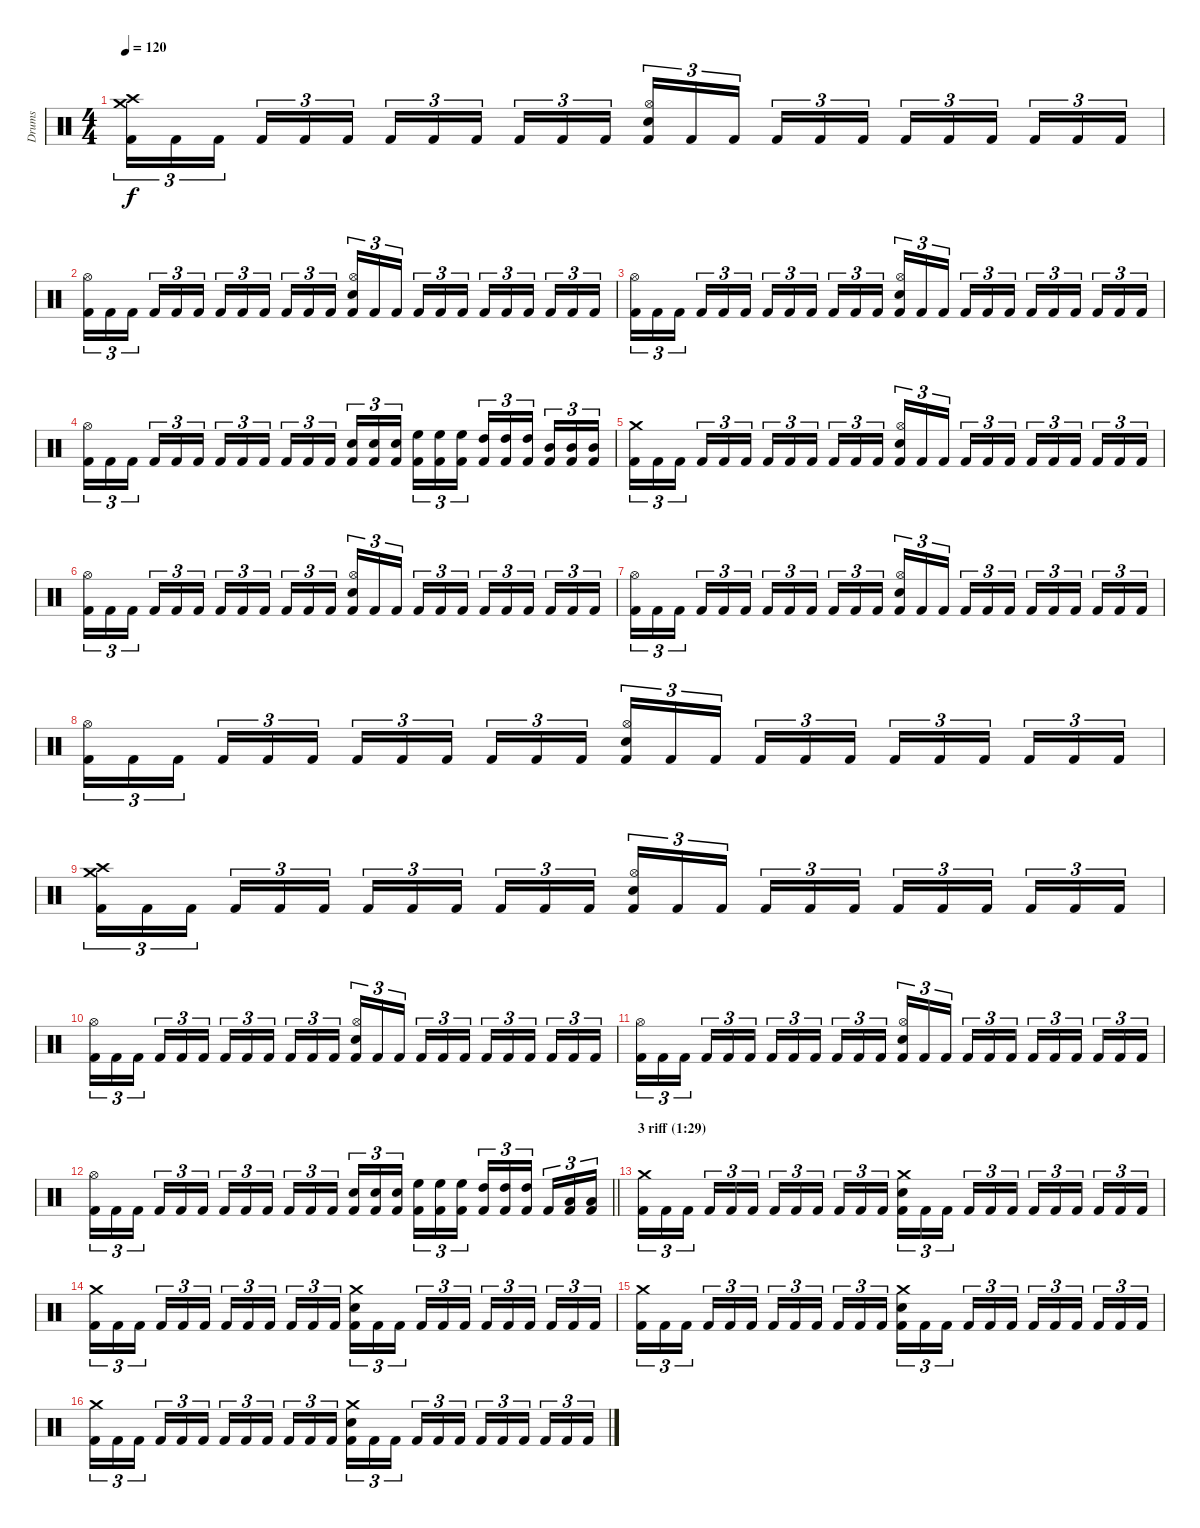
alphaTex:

\track ("Drums" "Drums") {instrument percussion}
\staff {score}
\articulation defaults
\ts (4 4)
\tempo 120
\clef neutral
\ks c
("Crash high (hit)" "Crash medium (hit)" "Kick (hit) 2").16{tu (3 2) dy f} "Kick (hit) 2".16{tu (3 2)} "Kick (hit) 2".16{tu (3 2) beam splitsecondary} "Kick (hit) 2".16{tu (3 2)} "Kick (hit) 2".16{tu (3 2)} "Kick (hit) 2".16{tu (3 2)} "Kick (hit) 2".16{tu (3 2)} "Kick (hit) 2".16{tu (3 2)} "Kick (hit) 2".16{tu (3 2) beam splitsecondary} "Kick (hit) 2".16{tu (3 2)} "Kick (hit) 2".16{tu (3 2)} "Kick (hit) 2".16{tu (3 2)} ("Hi-Hat (open)" "Snare (hit) 2" "Kick (hit) 2").16{tu (3 2)} "Kick (hit) 2".16{tu (3 2)} "Kick (hit) 2".16{tu (3 2) beam splitsecondary} "Kick (hit) 2".16{tu (3 2)} "Kick (hit) 2".16{tu (3 2)} "Kick (hit) 2".16{tu (3 2)} "Kick (hit) 2".16{tu (3 2)} "Kick (hit) 2".16{tu (3 2)} "Kick (hit) 2".16{tu (3 2) beam splitsecondary} "Kick (hit) 2".16{tu (3 2)} "Kick (hit) 2".16{tu (3 2)} "Kick (hit) 2".16{tu (3 2)} |
("Hi-Hat (open)" "Kick (hit) 2").16{tu (3 2)} "Kick (hit) 2".16{tu (3 2)} "Kick (hit) 2".16{tu (3 2) beam splitsecondary} "Kick (hit) 2".16{tu (3 2)} "Kick (hit) 2".16{tu (3 2)} "Kick (hit) 2".16{tu (3 2)} "Kick (hit) 2".16{tu (3 2)} "Kick (hit) 2".16{tu (3 2)} "Kick (hit) 2".16{tu (3 2) beam splitsecondary} "Kick (hit) 2".16{tu (3 2)} "Kick (hit) 2".16{tu (3 2)} "Kick (hit) 2".16{tu (3 2)} ("Hi-Hat (open)" "Snare (hit) 2" "Kick (hit) 2").16{tu (3 2)} "Kick (hit) 2".16{tu (3 2)} "Kick (hit) 2".16{tu (3 2) beam splitsecondary} "Kick (hit) 2".16{tu (3 2)} "Kick (hit) 2".16{tu (3 2)} "Kick (hit) 2".16{tu (3 2)} "Kick (hit) 2".16{tu (3 2)} "Kick (hit) 2".16{tu (3 2)} "Kick (hit) 2".16{tu (3 2) beam splitsecondary} "Kick (hit) 2".16{tu (3 2)} "Kick (hit) 2".16{tu (3 2)} "Kick (hit) 2".16{tu (3 2)} |
("Hi-Hat (open)" "Kick (hit) 2").16{tu (3 2)} "Kick (hit) 2".16{tu (3 2)} "Kick (hit) 2".16{tu (3 2) beam splitsecondary} "Kick (hit) 2".16{tu (3 2)} "Kick (hit) 2".16{tu (3 2)} "Kick (hit) 2".16{tu (3 2)} "Kick (hit) 2".16{tu (3 2)} "Kick (hit) 2".16{tu (3 2)} "Kick (hit) 2".16{tu (3 2) beam splitsecondary} "Kick (hit) 2".16{tu (3 2)} "Kick (hit) 2".16{tu (3 2)} "Kick (hit) 2".16{tu (3 2)} ("Hi-Hat (open)" "Snare (hit) 2" "Kick (hit) 2").16{tu (3 2)} "Kick (hit) 2".16{tu (3 2)} "Kick (hit) 2".16{tu (3 2) beam splitsecondary} "Kick (hit) 2".16{tu (3 2)} "Kick (hit) 2".16{tu (3 2)} "Kick (hit) 2".16{tu (3 2)} "Kick (hit) 2".16{tu (3 2)} "Kick (hit) 2".16{tu (3 2)} "Kick (hit) 2".16{tu (3 2) beam splitsecondary} "Kick (hit) 2".16{tu (3 2)} "Kick (hit) 2".16{tu (3 2)} "Kick (hit) 2".16{tu (3 2)} |
("Hi-Hat (open)" "Kick (hit) 2").16{tu (3 2)} "Kick (hit) 2".16{tu (3 2)} "Kick (hit) 2".16{tu (3 2) beam splitsecondary} "Kick (hit) 2".16{tu (3 2)} "Kick (hit) 2".16{tu (3 2)} "Kick (hit) 2".16{tu (3 2)} "Kick (hit) 2".16{tu (3 2)} "Kick (hit) 2".16{tu (3 2)} "Kick (hit) 2".16{tu (3 2) beam splitsecondary} "Kick (hit) 2".16{tu (3 2)} "Kick (hit) 2".16{tu (3 2)} "Kick (hit) 2".16{tu (3 2)} ("Snare (hit) 2" "Kick (hit) 2").16{tu (3 2)} ("Snare (hit) 2" "Kick (hit) 2").16{tu (3 2)} ("Snare (hit) 2" "Kick (hit) 2").16{tu (3 2) beam splitsecondary} ("High Floor Tom (hit)" "Kick (hit) 2").16{tu (3 2)} ("High Floor Tom (hit)" "Kick (hit) 2").16{tu (3 2)} ("High Floor Tom (hit)" "Kick (hit) 2").16{tu (3 2)} ("High Tom (hit)" "Kick (hit) 2").16{tu (3 2)} ("High Tom (hit)" "Kick (hit) 2").16{tu (3 2)} ("High Tom (hit)" "Kick (hit) 2").16{tu (3 2) beam splitsecondary} ("Mid Tom (hit)" "Kick (hit) 2").16{tu (3 2)} ("Mid Tom (hit)" "Kick (hit) 2").16{tu (3 2)} ("Mid Tom (hit)" "Kick (hit) 2").16{tu (3 2)} |
("Crash medium (hit)" "Kick (hit) 2").16{tu (3 2)} "Kick (hit) 2".16{tu (3 2)} "Kick (hit) 2".16{tu (3 2) beam splitsecondary} "Kick (hit) 2".16{tu (3 2)} "Kick (hit) 2".16{tu (3 2)} "Kick (hit) 2".16{tu (3 2)} "Kick (hit) 2".16{tu (3 2)} "Kick (hit) 2".16{tu (3 2)} "Kick (hit) 2".16{tu (3 2) beam splitsecondary} "Kick (hit) 2".16{tu (3 2)} "Kick (hit) 2".16{tu (3 2)} "Kick (hit) 2".16{tu (3 2)} ("Hi-Hat (open)" "Snare (hit) 2" "Kick (hit) 2").16{tu (3 2)} "Kick (hit) 2".16{tu (3 2)} "Kick (hit) 2".16{tu (3 2) beam splitsecondary} "Kick (hit) 2".16{tu (3 2)} "Kick (hit) 2".16{tu (3 2)} "Kick (hit) 2".16{tu (3 2)} "Kick (hit) 2".16{tu (3 2)} "Kick (hit) 2".16{tu (3 2)} "Kick (hit) 2".16{tu (3 2) beam splitsecondary} "Kick (hit) 2".16{tu (3 2)} "Kick (hit) 2".16{tu (3 2)} "Kick (hit) 2".16{tu (3 2)} |
("Hi-Hat (open)" "Kick (hit) 2").16{tu (3 2)} "Kick (hit) 2".16{tu (3 2)} "Kick (hit) 2".16{tu (3 2) beam splitsecondary} "Kick (hit) 2".16{tu (3 2)} "Kick (hit) 2".16{tu (3 2)} "Kick (hit) 2".16{tu (3 2)} "Kick (hit) 2".16{tu (3 2)} "Kick (hit) 2".16{tu (3 2)} "Kick (hit) 2".16{tu (3 2) beam splitsecondary} "Kick (hit) 2".16{tu (3 2)} "Kick (hit) 2".16{tu (3 2)} "Kick (hit) 2".16{tu (3 2)} ("Hi-Hat (open)" "Snare (hit) 2" "Kick (hit) 2").16{tu (3 2)} "Kick (hit) 2".16{tu (3 2)} "Kick (hit) 2".16{tu (3 2) beam splitsecondary} "Kick (hit) 2".16{tu (3 2)} "Kick (hit) 2".16{tu (3 2)} "Kick (hit) 2".16{tu (3 2)} "Kick (hit) 2".16{tu (3 2)} "Kick (hit) 2".16{tu (3 2)} "Kick (hit) 2".16{tu (3 2) beam splitsecondary} "Kick (hit) 2".16{tu (3 2)} "Kick (hit) 2".16{tu (3 2)} "Kick (hit) 2".16{tu (3 2)} |
("Hi-Hat (open)" "Kick (hit) 2").16{tu (3 2)} "Kick (hit) 2".16{tu (3 2)} "Kick (hit) 2".16{tu (3 2) beam splitsecondary} "Kick (hit) 2".16{tu (3 2)} "Kick (hit) 2".16{tu (3 2)} "Kick (hit) 2".16{tu (3 2)} "Kick (hit) 2".16{tu (3 2)} "Kick (hit) 2".16{tu (3 2)} "Kick (hit) 2".16{tu (3 2) beam splitsecondary} "Kick (hit) 2".16{tu (3 2)} "Kick (hit) 2".16{tu (3 2)} "Kick (hit) 2".16{tu (3 2)} ("Hi-Hat (open)" "Snare (hit) 2" "Kick (hit) 2").16{tu (3 2)} "Kick (hit) 2".16{tu (3 2)} "Kick (hit) 2".16{tu (3 2) beam splitsecondary} "Kick (hit) 2".16{tu (3 2)} "Kick (hit) 2".16{tu (3 2)} "Kick (hit) 2".16{tu (3 2)} "Kick (hit) 2".16{tu (3 2)} "Kick (hit) 2".16{tu (3 2)} "Kick (hit) 2".16{tu (3 2) beam splitsecondary} "Kick (hit) 2".16{tu (3 2)} "Kick (hit) 2".16{tu (3 2)} "Kick (hit) 2".16{tu (3 2)} |
("Hi-Hat (open)" "Kick (hit) 2").16{tu (3 2)} "Kick (hit) 2".16{tu (3 2)} "Kick (hit) 2".16{tu (3 2) beam splitsecondary} "Kick (hit) 2".16{tu (3 2)} "Kick (hit) 2".16{tu (3 2)} "Kick (hit) 2".16{tu (3 2)} "Kick (hit) 2".16{tu (3 2)} "Kick (hit) 2".16{tu (3 2)} "Kick (hit) 2".16{tu (3 2) beam splitsecondary} "Kick (hit) 2".16{tu (3 2)} "Kick (hit) 2".16{tu (3 2)} "Kick (hit) 2".16{tu (3 2)} ("Hi-Hat (open)" "Snare (hit) 2" "Kick (hit) 2").16{tu (3 2)} "Kick (hit) 2".16{tu (3 2)} "Kick (hit) 2".16{tu (3 2) beam splitsecondary} "Kick (hit) 2".16{tu (3 2)} "Kick (hit) 2".16{tu (3 2)} "Kick (hit) 2".16{tu (3 2)} "Kick (hit) 2".16{tu (3 2)} "Kick (hit) 2".16{tu (3 2)} "Kick (hit) 2".16{tu (3 2) beam splitsecondary} "Kick (hit) 2".16{tu (3 2)} "Kick (hit) 2".16{tu (3 2)} "Kick (hit) 2".16{tu (3 2)} |
("Crash high (hit)" "Crash medium (hit)" "Kick (hit) 2").16{tu (3 2)} "Kick (hit) 2".16{tu (3 2)} "Kick (hit) 2".16{tu (3 2) beam splitsecondary} "Kick (hit) 2".16{tu (3 2)} "Kick (hit) 2".16{tu (3 2)} "Kick (hit) 2".16{tu (3 2)} "Kick (hit) 2".16{tu (3 2)} "Kick (hit) 2".16{tu (3 2)} "Kick (hit) 2".16{tu (3 2) beam splitsecondary} "Kick (hit) 2".16{tu (3 2)} "Kick (hit) 2".16{tu (3 2)} "Kick (hit) 2".16{tu (3 2)} ("Hi-Hat (open)" "Snare (hit) 2" "Kick (hit) 2").16{tu (3 2)} "Kick (hit) 2".16{tu (3 2)} "Kick (hit) 2".16{tu (3 2) beam splitsecondary} "Kick (hit) 2".16{tu (3 2)} "Kick (hit) 2".16{tu (3 2)} "Kick (hit) 2".16{tu (3 2)} "Kick (hit) 2".16{tu (3 2)} "Kick (hit) 2".16{tu (3 2)} "Kick (hit) 2".16{tu (3 2) beam splitsecondary} "Kick (hit) 2".16{tu (3 2)} "Kick (hit) 2".16{tu (3 2)} "Kick (hit) 2".16{tu (3 2)} |
("Hi-Hat (open)" "Kick (hit) 2").16{tu (3 2)} "Kick (hit) 2".16{tu (3 2)} "Kick (hit) 2".16{tu (3 2) beam splitsecondary} "Kick (hit) 2".16{tu (3 2)} "Kick (hit) 2".16{tu (3 2)} "Kick (hit) 2".16{tu (3 2)} "Kick (hit) 2".16{tu (3 2)} "Kick (hit) 2".16{tu (3 2)} "Kick (hit) 2".16{tu (3 2) beam splitsecondary} "Kick (hit) 2".16{tu (3 2)} "Kick (hit) 2".16{tu (3 2)} "Kick (hit) 2".16{tu (3 2)} ("Hi-Hat (open)" "Snare (hit) 2" "Kick (hit) 2").16{tu (3 2)} "Kick (hit) 2".16{tu (3 2)} "Kick (hit) 2".16{tu (3 2) beam splitsecondary} "Kick (hit) 2".16{tu (3 2)} "Kick (hit) 2".16{tu (3 2)} "Kick (hit) 2".16{tu (3 2)} "Kick (hit) 2".16{tu (3 2)} "Kick (hit) 2".16{tu (3 2)} "Kick (hit) 2".16{tu (3 2) beam splitsecondary} "Kick (hit) 2".16{tu (3 2)} "Kick (hit) 2".16{tu (3 2)} "Kick (hit) 2".16{tu (3 2)} |
("Hi-Hat (open)" "Kick (hit) 2").16{tu (3 2)} "Kick (hit) 2".16{tu (3 2)} "Kick (hit) 2".16{tu (3 2) beam splitsecondary} "Kick (hit) 2".16{tu (3 2)} "Kick (hit) 2".16{tu (3 2)} "Kick (hit) 2".16{tu (3 2)} "Kick (hit) 2".16{tu (3 2)} "Kick (hit) 2".16{tu (3 2)} "Kick (hit) 2".16{tu (3 2) beam splitsecondary} "Kick (hit) 2".16{tu (3 2)} "Kick (hit) 2".16{tu (3 2)} "Kick (hit) 2".16{tu (3 2)} ("Hi-Hat (open)" "Snare (hit) 2" "Kick (hit) 2").16{tu (3 2)} "Kick (hit) 2".16{tu (3 2)} "Kick (hit) 2".16{tu (3 2) beam splitsecondary} "Kick (hit) 2".16{tu (3 2)} "Kick (hit) 2".16{tu (3 2)} "Kick (hit) 2".16{tu (3 2)} "Kick (hit) 2".16{tu (3 2)} "Kick (hit) 2".16{tu (3 2)} "Kick (hit) 2".16{tu (3 2) beam splitsecondary} "Kick (hit) 2".16{tu (3 2)} "Kick (hit) 2".16{tu (3 2)} "Kick (hit) 2".16{tu (3 2)} |
\barLineRight lightlight
("Hi-Hat (open)" "Kick (hit) 2").16{tu (3 2)} "Kick (hit) 2".16{tu (3 2)} "Kick (hit) 2".16{tu (3 2) beam splitsecondary} "Kick (hit) 2".16{tu (3 2)} "Kick (hit) 2".16{tu (3 2)} "Kick (hit) 2".16{tu (3 2)} "Kick (hit) 2".16{tu (3 2)} "Kick (hit) 2".16{tu (3 2)} "Kick (hit) 2".16{tu (3 2) beam splitsecondary} "Kick (hit) 2".16{tu (3 2)} "Kick (hit) 2".16{tu (3 2)} "Kick (hit) 2".16{tu (3 2)} ("Snare (hit) 2" "Kick (hit) 2").16{tu (3 2)} ("Snare (hit) 2" "Kick (hit) 2").16{tu (3 2)} ("Snare (hit) 2" "Kick (hit) 2").16{tu (3 2) beam splitsecondary} ("High Floor Tom (hit)" "Kick (hit) 2").16{tu (3 2)} ("High Floor Tom (hit)" "Kick (hit) 2").16{tu (3 2)} ("High Floor Tom (hit)" "Kick (hit) 2").16{tu (3 2)} ("High Tom (hit)" "Kick (hit) 2").16{tu (3 2)} ("High Tom (hit)" "Kick (hit) 2").16{tu (3 2)} ("High Tom (hit)" "Kick (hit) 2").16{tu (3 2) beam splitsecondary} "Kick (hit) 2".16{tu (3 2)} ("Low Tom (hit)" "Kick (hit) 2").16{tu (3 2)} ("Low Tom (hit)" "Kick (hit) 2").16{tu (3 2)} |
\section ("" "3 riff (1:29)")
("Crash medium (hit)" "Kick (hit) 2").16{tu (3 2)} "Kick (hit) 2".16{tu (3 2)} "Kick (hit) 2".16{tu (3 2) beam splitsecondary} "Kick (hit) 2".16{tu (3 2)} "Kick (hit) 2".16{tu (3 2)} "Kick (hit) 2".16{tu (3 2)} "Kick (hit) 2".16{tu (3 2)} "Kick (hit) 2".16{tu (3 2)} "Kick (hit) 2".16{tu (3 2) beam splitsecondary} "Kick (hit) 2".16{tu (3 2)} "Kick (hit) 2".16{tu (3 2)} "Kick (hit) 2".16{tu (3 2)} ("Crash medium (hit)" "Snare (hit) 2" "Kick (hit) 2").16{tu (3 2)} "Kick (hit) 2".16{tu (3 2)} "Kick (hit) 2".16{tu (3 2) beam splitsecondary} "Kick (hit) 2".16{tu (3 2)} "Kick (hit) 2".16{tu (3 2)} "Kick (hit) 2".16{tu (3 2)} "Kick (hit) 2".16{tu (3 2)} "Kick (hit) 2".16{tu (3 2)} "Kick (hit) 2".16{tu (3 2) beam splitsecondary} "Kick (hit) 2".16{tu (3 2)} "Kick (hit) 2".16{tu (3 2)} "Kick (hit) 2".16{tu (3 2)} |
("Crash medium (hit)" "Kick (hit) 2").16{tu (3 2)} "Kick (hit) 2".16{tu (3 2)} "Kick (hit) 2".16{tu (3 2) beam splitsecondary} "Kick (hit) 2".16{tu (3 2)} "Kick (hit) 2".16{tu (3 2)} "Kick (hit) 2".16{tu (3 2)} "Kick (hit) 2".16{tu (3 2)} "Kick (hit) 2".16{tu (3 2)} "Kick (hit) 2".16{tu (3 2) beam splitsecondary} "Kick (hit) 2".16{tu (3 2)} "Kick (hit) 2".16{tu (3 2)} "Kick (hit) 2".16{tu (3 2)} ("Crash medium (hit)" "Snare (hit) 2" "Kick (hit) 2").16{tu (3 2)} "Kick (hit) 2".16{tu (3 2)} "Kick (hit) 2".16{tu (3 2) beam splitsecondary} "Kick (hit) 2".16{tu (3 2)} "Kick (hit) 2".16{tu (3 2)} "Kick (hit) 2".16{tu (3 2)} "Kick (hit) 2".16{tu (3 2)} "Kick (hit) 2".16{tu (3 2)} "Kick (hit) 2".16{tu (3 2) beam splitsecondary} "Kick (hit) 2".16{tu (3 2)} "Kick (hit) 2".16{tu (3 2)} "Kick (hit) 2".16{tu (3 2)} |
("Crash medium (hit)" "Kick (hit) 2").16{tu (3 2)} "Kick (hit) 2".16{tu (3 2)} "Kick (hit) 2".16{tu (3 2) beam splitsecondary} "Kick (hit) 2".16{tu (3 2)} "Kick (hit) 2".16{tu (3 2)} "Kick (hit) 2".16{tu (3 2)} "Kick (hit) 2".16{tu (3 2)} "Kick (hit) 2".16{tu (3 2)} "Kick (hit) 2".16{tu (3 2) beam splitsecondary} "Kick (hit) 2".16{tu (3 2)} "Kick (hit) 2".16{tu (3 2)} "Kick (hit) 2".16{tu (3 2)} ("Crash medium (hit)" "Snare (hit) 2" "Kick (hit) 2").16{tu (3 2)} "Kick (hit) 2".16{tu (3 2)} "Kick (hit) 2".16{tu (3 2) beam splitsecondary} "Kick (hit) 2".16{tu (3 2)} "Kick (hit) 2".16{tu (3 2)} "Kick (hit) 2".16{tu (3 2)} "Kick (hit) 2".16{tu (3 2)} "Kick (hit) 2".16{tu (3 2)} "Kick (hit) 2".16{tu (3 2) beam splitsecondary} "Kick (hit) 2".16{tu (3 2)} "Kick (hit) 2".16{tu (3 2)} "Kick (hit) 2".16{tu (3 2)} |
("Crash medium (hit)" "Kick (hit) 2").16{tu (3 2)} "Kick (hit) 2".16{tu (3 2)} "Kick (hit) 2".16{tu (3 2) beam splitsecondary} "Kick (hit) 2".16{tu (3 2)} "Kick (hit) 2".16{tu (3 2)} "Kick (hit) 2".16{tu (3 2)} "Kick (hit) 2".16{tu (3 2)} "Kick (hit) 2".16{tu (3 2)} "Kick (hit) 2".16{tu (3 2) beam splitsecondary} "Kick (hit) 2".16{tu (3 2)} "Kick (hit) 2".16{tu (3 2)} "Kick (hit) 2".16{tu (3 2)} ("Crash medium (hit)" "Snare (hit) 2" "Kick (hit) 2").16{tu (3 2)} "Kick (hit) 2".16{tu (3 2)} "Kick (hit) 2".16{tu (3 2) beam splitsecondary} "Kick (hit) 2".16{tu (3 2)} "Kick (hit) 2".16{tu (3 2)} "Kick (hit) 2".16{tu (3 2)} "Kick (hit) 2".16{tu (3 2)} "Kick (hit) 2".16{tu (3 2)} "Kick (hit) 2".16{tu (3 2) beam splitsecondary} "Kick (hit) 2".16{tu (3 2)} "Kick (hit) 2".16{tu (3 2)} "Kick (hit) 2".16{tu (3 2)}
